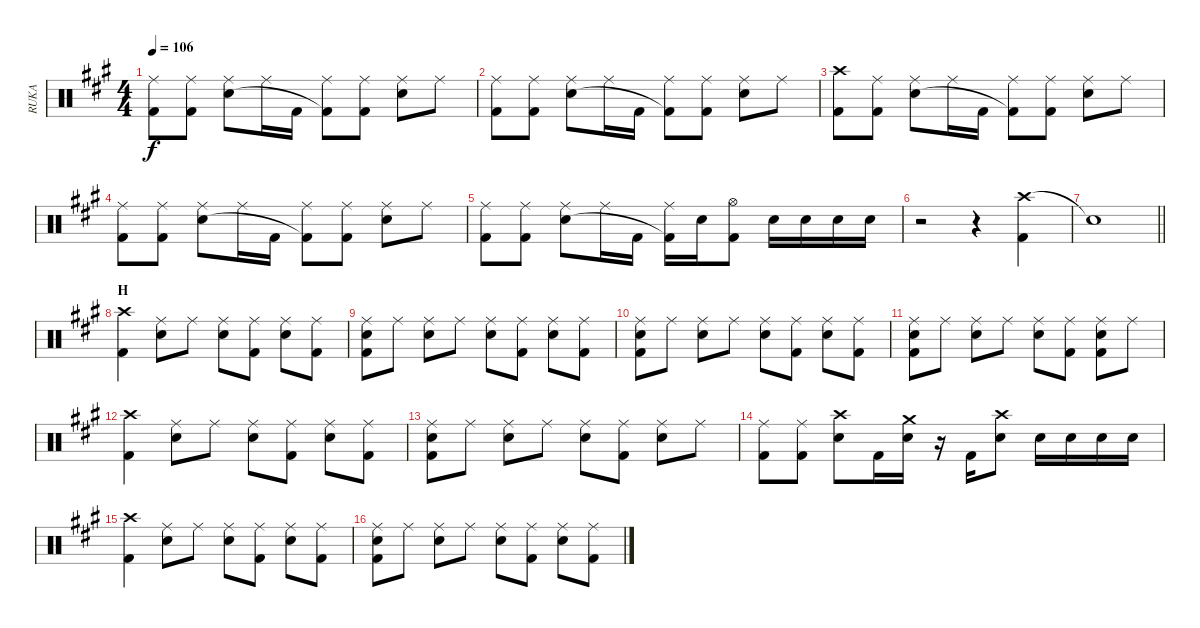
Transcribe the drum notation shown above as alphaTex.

\track ("RUKA" "RUKA") {instrument percussion}
\staff {score}
\articulation defaults
\ts (4 4)
\tempo 106
\clef neutral
\ks a
("Ride (middle)" "Kick (hit) 2").8{dy f} ("Ride (middle)" "Kick (hit) 2").8 ("Ride (middle)" "Snare (hit) 2").8 "Ride (middle)".16 "Kick (hit) 2".16 ("Ride (middle)" "Kick (hit) 2"{t}).8 ("Ride (middle)" "Kick (hit) 2").8 ("Ride (middle)" "Snare (hit) 2").8 "Ride (middle)".8 |
("Ride (middle)" "Kick (hit) 2").8 ("Ride (middle)" "Kick (hit) 2").8 ("Ride (middle)" "Snare (hit) 2").8 "Ride (middle)".16 "Kick (hit) 2".16 ("Ride (middle)" "Kick (hit) 2"{t}).8 ("Ride (middle)" "Kick (hit) 2").8 ("Ride (middle)" "Snare (hit) 2").8 "Ride (middle)".8 |
("Crash high (hit)" "Kick (hit) 2").8 ("Ride (middle)" "Kick (hit) 2").8 ("Ride (middle)" "Snare (hit) 2").8 "Ride (middle)".16 "Kick (hit) 2".16 ("Ride (middle)" "Kick (hit) 2"{t}).8 ("Ride (middle)" "Kick (hit) 2").8 ("Ride (middle)" "Snare (hit) 2").8 "Ride (middle)".8 |
("Ride (middle)" "Kick (hit) 2").8 ("Ride (middle)" "Kick (hit) 2").8 ("Ride (middle)" "Snare (hit) 2").8 "Ride (middle)".16 "Kick (hit) 2".16 ("Ride (middle)" "Kick (hit) 2"{t}).8 ("Ride (middle)" "Kick (hit) 2").8 ("Ride (middle)" "Snare (hit) 2").8 "Ride (middle)".8 |
("Ride (middle)" "Kick (hit) 2").8 ("Ride (middle)" "Kick (hit) 2").8 ("Ride (middle)" "Snare (hit) 2").8 "Ride (middle)".16 "Kick (hit) 2".16 ("Ride (middle)" "Kick (hit) 2"{t}).16 "Snare (hit) 2".16 ("Hi-Hat (open)" "Kick (hit) 2").8 "Snare (hit) 2".16 "Snare (hit) 2".16 "Snare (hit) 2".16 "Snare (hit) 2".16 |
r.2 r.4 ("Crash high (hit)" "Kick (hit) 2").4 |
\barLineRight lightlight "Snare (hit)"{t}.1
|
\section ("" "H")
("Crash high (hit)" "Kick (hit) 2").4 ("Ride (middle)" "Snare (hit) 2").8 "Ride (middle)".8 ("Ride (middle)" "Snare (hit) 2").8 ("Ride (middle)" "Kick (hit) 2").8 ("Ride (middle)" "Snare (hit) 2").8 ("Ride (middle)" "Kick (hit) 2").8 |
("Ride (middle)" "Snare (hit) 2" "Kick (hit) 2").8 "Ride (middle)".8 ("Ride (middle)" "Snare (hit) 2").8 "Ride (middle)".8 ("Ride (middle)" "Snare (hit) 2").8 ("Ride (middle)" "Kick (hit) 2").8 ("Ride (middle)" "Snare (hit) 2").8 ("Ride (middle)" "Kick (hit) 2").8 |
("Ride (middle)" "Snare (hit) 2" "Kick (hit) 2").8 "Ride (middle)".8 ("Ride (middle)" "Snare (hit) 2").8 "Ride (middle)".8 ("Ride (middle)" "Snare (hit) 2").8 ("Ride (middle)" "Kick (hit) 2").8 ("Ride (middle)" "Snare (hit) 2").8 ("Ride (middle)" "Kick (hit) 2").8 |
("Ride (middle)" "Snare (hit) 2" "Kick (hit) 2").8 "Ride (middle)".8 ("Ride (middle)" "Snare (hit) 2").8 "Ride (middle)".8 ("Ride (middle)" "Snare (hit) 2").8 ("Ride (middle)" "Kick (hit) 2").8 ("Ride (middle)" "Snare (hit) 2" "Kick (hit) 2").8 "Ride (middle)".8 |
("Crash high (hit)" "Kick (hit) 2").4 ("Ride (middle)" "Snare (hit) 2").8 "Ride (middle)".8 ("Ride (middle)" "Snare (hit) 2").8 ("Ride (middle)" "Kick (hit) 2").8 ("Ride (middle)" "Snare (hit) 2").8 ("Ride (middle)" "Kick (hit) 2").8 |
("Ride (middle)" "Snare (hit) 2" "Kick (hit) 2").8 "Ride (middle)".8 ("Ride (middle)" "Snare (hit) 2").8 "Ride (middle)".8 ("Ride (middle)" "Snare (hit) 2").8 ("Ride (middle)" "Kick (hit) 2").8 ("Ride (middle)" "Snare (hit) 2").8 "Ride (middle)".8 |
("Ride (middle)" "Kick (hit) 2").8 ("Ride (middle)" "Kick (hit) 2").8 ("Crash high (hit)" "Snare (hit) 2").8 "Kick (hit) 2".16 ("Crash medium (hit)" "Snare (hit) 2").16 r.16 "Kick (hit) 2".16 ("Crash high (hit)" "Snare (hit) 2").8 "Snare (hit) 2".16 "Snare (hit) 2".16 "Snare (hit) 2".16 "Snare (hit) 2".16 |
("Crash high (hit)" "Kick (hit) 2").4 ("Ride (middle)" "Snare (hit) 2").8 "Ride (middle)".8 ("Ride (middle)" "Snare (hit) 2").8 ("Ride (middle)" "Kick (hit) 2").8 ("Ride (middle)" "Snare (hit) 2").8 ("Ride (middle)" "Kick (hit) 2").8 |
("Ride (middle)" "Snare (hit) 2" "Kick (hit) 2").8 "Ride (middle)".8 ("Ride (middle)" "Snare (hit) 2").8 "Ride (middle)".8 ("Ride (middle)" "Snare (hit) 2").8 ("Ride (middle)" "Kick (hit) 2").8 ("Ride (middle)" "Snare (hit) 2").8 ("Ride (middle)" "Kick (hit) 2").8
